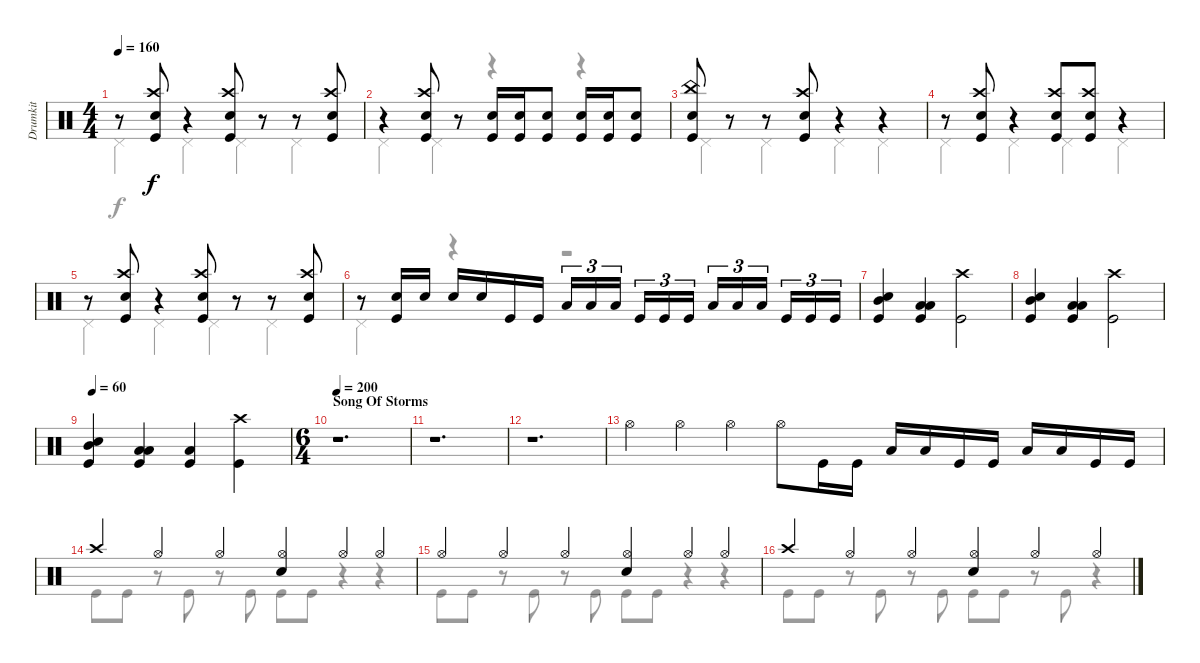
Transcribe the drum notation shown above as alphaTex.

\track ("Drumkit" "Drumkit") {instrument percussion}
\staff {score}
\articulation defaults
\voice
\ts (4 4)
\tempo 160
\clef neutral
\ks c
r.8{dy f} ("Kick (hit)" "Snare (hit) 2" "Crash high (hit)").8 r.4 ("Kick (hit)" "Snare (hit) 2" "Crash high (hit)").8 r.8 r.8 ("Kick (hit)" "Snare (hit) 2" "Crash high (hit)").8 |
r.4 ("Kick (hit)" "Snare (hit) 2" "Crash high (hit)").8 r.8 ("Kick (hit)" "Snare (hit) 2").16 ("Kick (hit)" "Snare (hit) 2").16 ("Kick (hit)" "Snare (hit) 2").8 ("Kick (hit)" "Snare (hit) 2").16 ("Kick (hit)" "Snare (hit) 2").16 ("Kick (hit)" "Snare (hit) 2").8 |
("Kick (hit)" "China (hit)" "Snare (hit) 2").8 r.8 r.8 ("Kick (hit)" "Snare (hit) 2" "Crash high (hit)").8 r.4 r.4 |
r.8 ("Kick (hit)" "Snare (hit) 2" "Crash high (hit)").8 r.4 ("Kick (hit)" "Snare (hit) 2" "Crash high (hit)").8 ("Kick (hit)" "Snare (hit) 2" "Crash high (hit)").8 r.4 |
r.8 ("Kick (hit)" "Snare (hit) 2" "Crash high (hit)").8 r.4 ("Kick (hit)" "Snare (hit) 2" "Crash high (hit)").8 r.8 r.8 ("Kick (hit)" "Snare (hit) 2" "Crash high (hit)").8 |
r.8 ("Kick (hit)" "Snare (hit) 2").16 "Snare (hit) 2".16 "Snare (hit) 2".16 "Snare (hit) 2".16 "Kick (hit)".16 "Kick (hit)".16 "Low Tom (hit)".16{tu (3 2)} "Low Tom (hit)".16{tu (3 2)} "Low Tom (hit)".16{tu (3 2)} "Kick (hit)".16{tu (3 2)} "Kick (hit)".16{tu (3 2)} "Kick (hit)".16{tu (3 2)} "Low Floor Tom (hit)".16{tu (3 2)} "Low Floor Tom (hit)".16{tu (3 2)} "Low Floor Tom (hit)".16{tu (3 2)} "Kick (hit)".16{tu (3 2)} "Kick (hit)".16{tu (3 2)} "Kick (hit)".16{tu (3 2)} |
("Kick (hit)" "Snare (hit) 2" "Mid Tom (hit)").4 ("Kick (hit)" "Low Tom (hit)" "Low Floor Tom (hit)").4 ("Kick (hit)" "Crash high (hit)").2 |
("Kick (hit)" "Snare (hit) 2" "Mid Tom (hit)").4 ("Kick (hit)" "Low Tom (hit)" "Low Floor Tom (hit)").4 ("Kick (hit)" "Crash high (hit)").2 |
\tempo 60
("Kick (hit)" "Snare (hit) 2" "Mid Tom (hit)").4 ("Kick (hit)" "Low Tom (hit)" "Low Floor Tom (hit)").4 ("Kick (hit)" "Low Floor Tom (hit)").4 ("Kick (hit)" "Crash high (hit)").4 |
\ts (6 4)
\section ("" "Song Of Storms")
\tempo 200
r.1{d} |
r.1{d} |
r.1{d} |
"Hi-Hat (open)".4 "Hi-Hat (open)".4 "Hi-Hat (open)".4 "Hi-Hat (open)".8 "Kick (hit)".16 "Kick (hit)".16 "Low Tom (hit)".16 "Low Tom (hit)".16 "Kick (hit)".16 "Kick (hit)".16 "Low Floor Tom (hit)".16 "Low Floor Tom (hit)".16 "Kick (hit)".16 "Kick (hit)".16 |
"Crash high (hit)".4 "Hi-Hat (open)".4 "Hi-Hat (open)".4 ("Hi-Hat (open)" "Snare (hit) 2").4 "Hi-Hat (open)".4 "Hi-Hat (open)".4 |
"Hi-Hat (open)".4 "Hi-Hat (open)".4 "Hi-Hat (open)".4 ("Hi-Hat (open)" "Snare (hit) 2").4 "Hi-Hat (open)".4 "Hi-Hat (open)".4 |
"Crash high (hit)".4 "Hi-Hat (open)".4 "Hi-Hat (open)".4 ("Hi-Hat (open)" "Snare (hit) 2").4 "Hi-Hat (open)".4 "Hi-Hat (open)".4
\voice
\clef neutral
\ottava regular
\simile none
\ks c "Pedal Hi-Hat (hit)".4{dy f} "Pedal Hi-Hat (hit)".4 "Pedal Hi-Hat (hit)".4 "Pedal Hi-Hat (hit)".4
|
"Pedal Hi-Hat (hit)".4 "Pedal Hi-Hat (hit)".4 r.4 r.4 |
"Pedal Hi-Hat (hit)".4 "Pedal Hi-Hat (hit)".4 "Pedal Hi-Hat (hit)".4 "Pedal Hi-Hat (hit)".4 |
"Pedal Hi-Hat (hit)".4 "Pedal Hi-Hat (hit)".4 "Pedal Hi-Hat (hit)".4 "Pedal Hi-Hat (hit)".4 |
"Pedal Hi-Hat (hit)".4 "Pedal Hi-Hat (hit)".4 "Pedal Hi-Hat (hit)".4 "Pedal Hi-Hat (hit)".4 |
"Pedal Hi-Hat (hit)".4 r.4 r.2 |
|
|
|
|
|
|
|
"Kick (hit)".8 "Kick (hit)".8 r.8 "Kick (hit)".8 r.8 "Kick (hit)".8 "Kick (hit)".8 "Kick (hit)".8 r.4 r.4 |
"Kick (hit)".8 "Kick (hit)".8 r.8 "Kick (hit)".8 r.8 "Kick (hit)".8 "Kick (hit)".8 "Kick (hit)".8 r.4 r.4 |
"Kick (hit)".8 "Kick (hit)".8 r.8 "Kick (hit)".8 r.8 "Kick (hit)".8 "Kick (hit)".8 "Kick (hit)".8 r.8 "Kick (hit)".8 r.4
